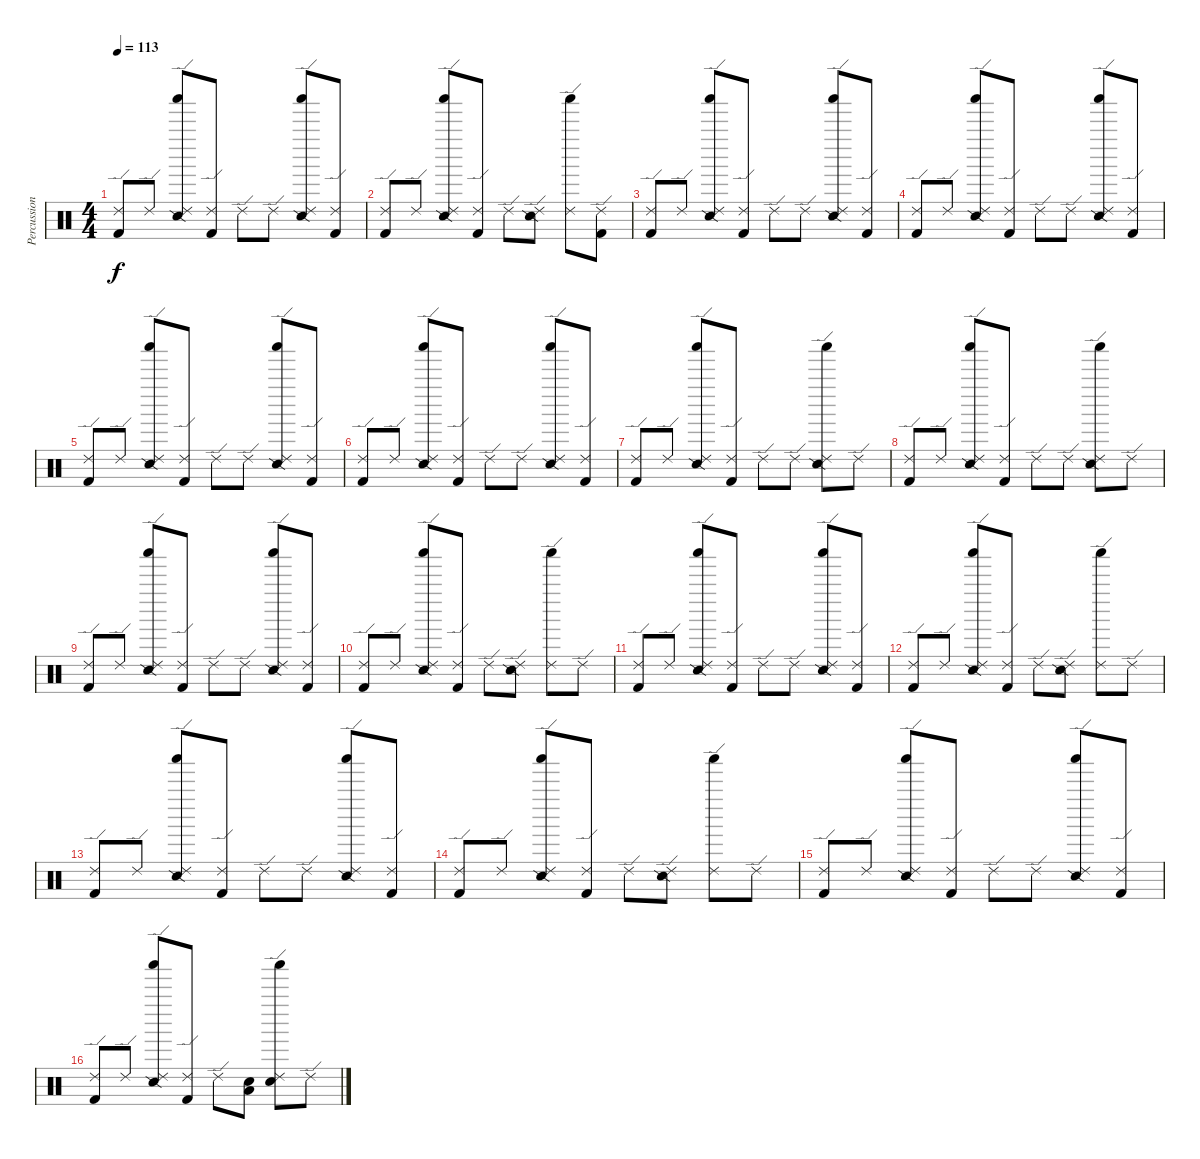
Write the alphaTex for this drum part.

\track ("Percussion" "Percussion") {instrument percussion}
\staff {score}
\articulation defaults
\ts (4 4)
\tempo 113
\clef neutral
\ks c
("Ride (edge) 2" "Kick (hit) 2").8{dy f} "Ride (edge) 2".8 ("Shaker (hit)" "Ride (edge) 2" "Snare (side stick) 2").8 ("Ride (edge) 2" "Kick (hit) 2").8 "Ride (edge) 2".8 "Ride (edge) 2".8 ("Shaker (hit)" "Ride (edge) 2" "Snare (side stick) 2").8 ("Ride (edge) 2" "Kick (hit) 2").8 |
("Ride (edge) 2" "Kick (hit) 2").8 "Ride (edge) 2".8 ("Shaker (hit)" "Ride (edge) 2" "Snare (side stick) 2").8 ("Ride (edge) 2" "Kick (hit) 2").8 "Ride (edge) 2".8 ("Ride (edge) 2" "Snare (side stick) 2").8 ("Shaker (hit)" "Ride (edge) 2").8 ("Ride (edge) 2" "Kick (hit) 2").8 |
("Ride (edge) 2" "Kick (hit) 2").8 "Ride (edge) 2".8 ("Shaker (hit)" "Ride (edge) 2" "Snare (side stick) 2").8 ("Ride (edge) 2" "Kick (hit) 2").8 "Ride (edge) 2".8 "Ride (edge) 2".8 ("Shaker (hit)" "Ride (edge) 2" "Snare (side stick) 2").8 ("Ride (edge) 2" "Kick (hit) 2").8 |
("Ride (edge) 2" "Kick (hit) 2").8 "Ride (edge) 2".8 ("Shaker (hit)" "Ride (edge) 2" "Snare (side stick) 2").8 ("Ride (edge) 2" "Kick (hit) 2").8 "Ride (edge) 2".8 "Ride (edge) 2".8 ("Shaker (hit)" "Ride (edge) 2" "Snare (side stick) 2").8 ("Ride (edge) 2" "Kick (hit) 2").8 |
("Ride (edge) 2" "Kick (hit) 2").8 "Ride (edge) 2".8 ("Shaker (hit)" "Ride (edge) 2" "Snare (side stick) 2").8 ("Ride (edge) 2" "Kick (hit) 2").8 "Ride (edge) 2".8 "Ride (edge) 2".8 ("Shaker (hit)" "Ride (edge) 2" "Snare (side stick) 2").8 ("Ride (edge) 2" "Kick (hit) 2").8 |
("Ride (edge) 2" "Kick (hit) 2").8 "Ride (edge) 2".8 ("Shaker (hit)" "Ride (edge) 2" "Snare (side stick) 2").8 ("Ride (edge) 2" "Kick (hit) 2").8 "Ride (edge) 2".8 "Ride (edge) 2".8 ("Shaker (hit)" "Ride (edge) 2" "Snare (side stick) 2").8 ("Ride (edge) 2" "Kick (hit) 2").8 |
("Ride (edge) 2" "Kick (hit) 2").8 "Ride (edge) 2".8 ("Shaker (hit)" "Ride (edge) 2" "Snare (side stick) 2").8 ("Ride (edge) 2" "Kick (hit) 2").8 "Ride (edge) 2".8 "Ride (edge) 2".8 ("Shaker (hit)" "Ride (edge) 2" "Snare (side stick) 2").8 "Ride (edge) 2".8 |
("Ride (edge) 2" "Kick (hit) 2").8 "Ride (edge) 2".8 ("Shaker (hit)" "Ride (edge) 2" "Snare (side stick) 2").8 ("Ride (edge) 2" "Kick (hit) 2").8 "Ride (edge) 2".8 "Ride (edge) 2".8 ("Shaker (hit)" "Ride (edge) 2" "Snare (side stick) 2").8 "Ride (edge) 2".8 |
("Ride (edge) 2" "Kick (hit) 2").8 "Ride (edge) 2".8 ("Shaker (hit)" "Ride (edge) 2" "Snare (side stick) 2").8 ("Ride (edge) 2" "Kick (hit) 2").8 "Ride (edge) 2".8 "Ride (edge) 2".8 ("Shaker (hit)" "Ride (edge) 2" "Snare (side stick) 2").8 ("Ride (edge) 2" "Kick (hit) 2").8 |
("Ride (edge) 2" "Kick (hit) 2").8 "Ride (edge) 2".8 ("Shaker (hit)" "Ride (edge) 2" "Snare (side stick) 2").8 ("Ride (edge) 2" "Kick (hit) 2").8 "Ride (edge) 2".8 ("Ride (edge) 2" "Snare (side stick) 2").8 ("Shaker (hit)" "Ride (edge) 2").8 "Ride (edge) 2".8 |
("Ride (edge) 2" "Kick (hit) 2").8 "Ride (edge) 2".8 ("Shaker (hit)" "Ride (edge) 2" "Snare (side stick) 2").8 ("Ride (edge) 2" "Kick (hit) 2").8 "Ride (edge) 2".8 "Ride (edge) 2".8 ("Shaker (hit)" "Ride (edge) 2" "Snare (side stick) 2").8 ("Ride (edge) 2" "Kick (hit) 2").8 |
("Ride (edge) 2" "Kick (hit) 2").8 "Ride (edge) 2".8 ("Shaker (hit)" "Ride (edge) 2" "Snare (side stick) 2").8 ("Ride (edge) 2" "Kick (hit) 2").8 "Ride (edge) 2".8 ("Ride (edge) 2" "Snare (side stick) 2").8 ("Shaker (hit)" "Ride (edge) 2").8 "Ride (edge) 2".8 |
("Ride (edge) 2" "Kick (hit) 2").8 "Ride (edge) 2".8 ("Shaker (hit)" "Ride (edge) 2" "Snare (side stick) 2").8 ("Ride (edge) 2" "Kick (hit) 2").8 "Ride (edge) 2".8 "Ride (edge) 2".8 ("Shaker (hit)" "Ride (edge) 2" "Snare (side stick) 2").8 ("Ride (edge) 2" "Kick (hit) 2").8 |
("Ride (edge) 2" "Kick (hit) 2").8 "Ride (edge) 2".8 ("Shaker (hit)" "Ride (edge) 2" "Snare (side stick) 2").8 ("Ride (edge) 2" "Kick (hit) 2").8 "Ride (edge) 2".8 ("Ride (edge) 2" "Snare (side stick) 2").8 ("Shaker (hit)" "Ride (edge) 2").8 "Ride (edge) 2".8 |
("Ride (edge) 2" "Kick (hit) 2").8 "Ride (edge) 2".8 ("Shaker (hit)" "Ride (edge) 2" "Snare (side stick) 2").8 ("Ride (edge) 2" "Kick (hit) 2").8 "Ride (edge) 2".8 "Ride (edge) 2".8 ("Shaker (hit)" "Ride (edge) 2" "Snare (side stick) 2").8 ("Ride (edge) 2" "Kick (hit) 2").8 |
("Ride (edge) 2" "Kick (hit) 2").8 "Ride (edge) 2".8 ("Shaker (hit)" "Ride (edge) 2" "Snare (side stick) 2").8 ("Ride (edge) 2" "Kick (hit) 2").8 "Ride (edge) 2".8 ("Electric Snare (hit)" "Low Tom (hit)").8 ("Shaker (hit)" "Ride (edge) 2" "Snare (hit) 2").8 "Ride (edge) 2".8
